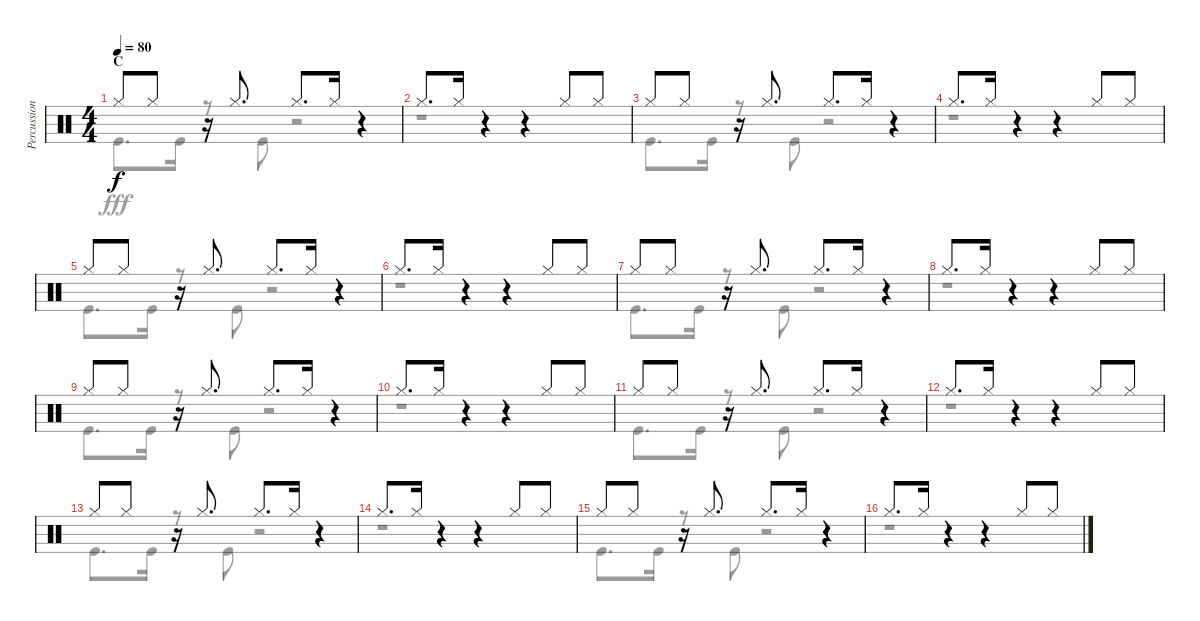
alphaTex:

\track ("Percussion" "Percussion") {instrument percussion}
\staff {score}
\articulation defaults
\voice
\ts (4 4)
\section ("" "C")
\tempo 80
\clef neutral
\ks c "Hi-Hat (closed)".8{dy f} "Hi-Hat (closed)".8
r.16 "Hi-Hat (closed)".8{d} "Hi-Hat (closed)".8{d} "Hi-Hat (closed)".16 r.4 |
"Hi-Hat (closed)".8{d} "Hi-Hat (closed)".16 r.4 r.4 "Hi-Hat (closed)".8 "Hi-Hat (closed)".8 |
"Hi-Hat (closed)".8 "Hi-Hat (closed)".8 r.16 "Hi-Hat (closed)".8{d} "Hi-Hat (closed)".8{d} "Hi-Hat (closed)".16 r.4 |
"Hi-Hat (closed)".8{d} "Hi-Hat (closed)".16 r.4 r.4 "Hi-Hat (closed)".8 "Hi-Hat (closed)".8 |
"Hi-Hat (closed)".8 "Hi-Hat (closed)".8 r.16 "Hi-Hat (closed)".8{d} "Hi-Hat (closed)".8{d} "Hi-Hat (closed)".16 r.4 |
"Hi-Hat (closed)".8{d} "Hi-Hat (closed)".16 r.4 r.4 "Hi-Hat (closed)".8 "Hi-Hat (closed)".8 |
"Hi-Hat (closed)".8 "Hi-Hat (closed)".8 r.16 "Hi-Hat (closed)".8{d} "Hi-Hat (closed)".8{d} "Hi-Hat (closed)".16 r.4 |
"Hi-Hat (closed)".8{d} "Hi-Hat (closed)".16 r.4 r.4 "Hi-Hat (closed)".8 "Hi-Hat (closed)".8 |
"Hi-Hat (closed)".8 "Hi-Hat (closed)".8 r.16 "Hi-Hat (closed)".8{d} "Hi-Hat (closed)".8{d} "Hi-Hat (closed)".16 r.4 |
"Hi-Hat (closed)".8{d} "Hi-Hat (closed)".16 r.4 r.4 "Hi-Hat (closed)".8 "Hi-Hat (closed)".8 |
"Hi-Hat (closed)".8 "Hi-Hat (closed)".8 r.16 "Hi-Hat (closed)".8{d} "Hi-Hat (closed)".8{d} "Hi-Hat (closed)".16 r.4 |
"Hi-Hat (closed)".8{d} "Hi-Hat (closed)".16 r.4 r.4 "Hi-Hat (closed)".8 "Hi-Hat (closed)".8 |
"Hi-Hat (closed)".8 "Hi-Hat (closed)".8 r.16 "Hi-Hat (closed)".8{d} "Hi-Hat (closed)".8{d} "Hi-Hat (closed)".16 r.4 |
"Hi-Hat (closed)".8{d} "Hi-Hat (closed)".16 r.4 r.4 "Hi-Hat (closed)".8 "Hi-Hat (closed)".8 |
"Hi-Hat (closed)".8 "Hi-Hat (closed)".8 r.16 "Hi-Hat (closed)".8{d} "Hi-Hat (closed)".8{d} "Hi-Hat (closed)".16 r.4 |
"Hi-Hat (closed)".8{d} "Hi-Hat (closed)".16 r.4 r.4 "Hi-Hat (closed)".8 "Hi-Hat (closed)".8
\voice
\clef neutral
\ottava regular
\simile none
\ks c "Kick (hit)".8{d dy fff} "Kick (hit)".16
r.8 "Kick (hit)".8 r.2 |
r.1 |
"Kick (hit)".8{d} "Kick (hit)".16 r.8 "Kick (hit)".8 r.2 |
r.1 |
"Kick (hit)".8{d} "Kick (hit)".16 r.8 "Kick (hit)".8 r.2 |
r.1 |
"Kick (hit)".8{d} "Kick (hit)".16 r.8 "Kick (hit)".8 r.2 |
r.1 |
"Kick (hit)".8{d} "Kick (hit)".16 r.8 "Kick (hit)".8 r.2 |
r.1 |
"Kick (hit)".8{d} "Kick (hit)".16 r.8 "Kick (hit)".8 r.2 |
r.1 |
"Kick (hit)".8{d} "Kick (hit)".16 r.8 "Kick (hit)".8 r.2 |
r.1 |
"Kick (hit)".8{d} "Kick (hit)".16 r.8 "Kick (hit)".8 r.2 |
r.1
